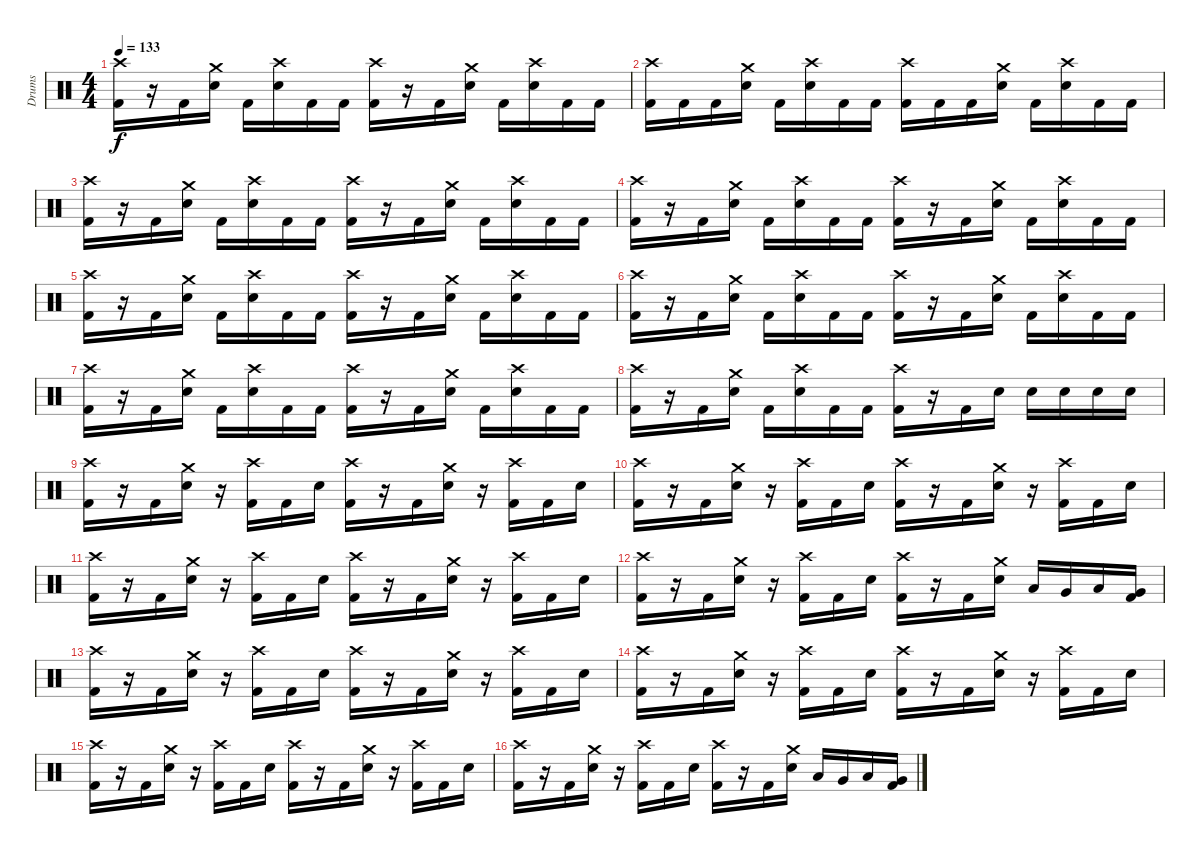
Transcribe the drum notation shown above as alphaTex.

\track ("Drums" "Drums") {instrument percussion}
\staff {score}
\articulation defaults
\ts (4 4)
\tempo 133
\clef neutral
\ks c
("Crash high (hit)" "Kick (hit) 2").16{dy f} r.16 "Kick (hit) 2".16 ("Crash medium (hit)" "Electric Snare (hit)").16 "Kick (hit) 2".16 ("Crash high (hit)" "Electric Snare (hit)").16 "Kick (hit) 2".16 "Kick (hit) 2".16 ("Crash high (hit)" "Kick (hit) 2").16 r.16 "Kick (hit) 2".16 ("Crash medium (hit)" "Electric Snare (hit)").16 "Kick (hit) 2".16 ("Crash high (hit)" "Electric Snare (hit)").16 "Kick (hit) 2".16 "Kick (hit) 2".16 |
("Crash high (hit)" "Kick (hit) 2").16 "Kick (hit) 2".16 "Kick (hit) 2".16 ("Crash medium (hit)" "Electric Snare (hit)").16 "Kick (hit) 2".16 ("Crash high (hit)" "Electric Snare (hit)").16 "Kick (hit) 2".16 "Kick (hit) 2".16 ("Crash high (hit)" "Kick (hit) 2").16 "Kick (hit) 2".16 "Kick (hit) 2".16 ("Crash medium (hit)" "Electric Snare (hit)").16 "Kick (hit) 2".16 ("Crash high (hit)" "Electric Snare (hit)").16 "Kick (hit) 2".16 "Kick (hit) 2".16 |
("Crash high (hit)" "Kick (hit) 2").16 r.16 "Kick (hit) 2".16 ("Crash medium (hit)" "Electric Snare (hit)").16 "Kick (hit) 2".16 ("Crash high (hit)" "Electric Snare (hit)").16 "Kick (hit) 2".16 "Kick (hit) 2".16 ("Crash high (hit)" "Kick (hit) 2").16 r.16 "Kick (hit) 2".16 ("Crash medium (hit)" "Electric Snare (hit)").16 "Kick (hit) 2".16 ("Crash high (hit)" "Electric Snare (hit)").16 "Kick (hit) 2".16 "Kick (hit) 2".16 |
("Crash high (hit)" "Kick (hit) 2").16 r.16 "Kick (hit) 2".16 ("Crash medium (hit)" "Electric Snare (hit)").16 "Kick (hit) 2".16 ("Crash high (hit)" "Electric Snare (hit)").16 "Kick (hit) 2".16 "Kick (hit) 2".16 ("Crash high (hit)" "Kick (hit) 2").16 r.16 "Kick (hit) 2".16 ("Crash medium (hit)" "Electric Snare (hit)").16 "Kick (hit) 2".16 ("Crash high (hit)" "Electric Snare (hit)").16 "Kick (hit) 2".16 "Kick (hit) 2".16 |
("Crash high (hit)" "Kick (hit) 2").16 r.16 "Kick (hit) 2".16 ("Crash medium (hit)" "Electric Snare (hit)").16 "Kick (hit) 2".16 ("Crash high (hit)" "Electric Snare (hit)").16 "Kick (hit) 2".16 "Kick (hit) 2".16 ("Crash high (hit)" "Kick (hit) 2").16 r.16 "Kick (hit) 2".16 ("Crash medium (hit)" "Electric Snare (hit)").16 "Kick (hit) 2".16 ("Crash high (hit)" "Electric Snare (hit)").16 "Kick (hit) 2".16 "Kick (hit) 2".16 |
("Crash high (hit)" "Kick (hit) 2").16 r.16 "Kick (hit) 2".16 ("Crash medium (hit)" "Electric Snare (hit)").16 "Kick (hit) 2".16 ("Crash high (hit)" "Electric Snare (hit)").16 "Kick (hit) 2".16 "Kick (hit) 2".16 ("Crash high (hit)" "Kick (hit) 2").16 r.16 "Kick (hit) 2".16 ("Crash medium (hit)" "Electric Snare (hit)").16 "Kick (hit) 2".16 ("Crash high (hit)" "Electric Snare (hit)").16 "Kick (hit) 2".16 "Kick (hit) 2".16 |
("Crash high (hit)" "Kick (hit) 2").16 r.16 "Kick (hit) 2".16 ("Crash medium (hit)" "Electric Snare (hit)").16 "Kick (hit) 2".16 ("Crash high (hit)" "Electric Snare (hit)").16 "Kick (hit) 2".16 "Kick (hit) 2".16 ("Crash high (hit)" "Kick (hit) 2").16 r.16 "Kick (hit) 2".16 ("Crash medium (hit)" "Electric Snare (hit)").16 "Kick (hit) 2".16 ("Crash high (hit)" "Electric Snare (hit)").16 "Kick (hit) 2".16 "Kick (hit) 2".16 |
("Crash high (hit)" "Kick (hit) 2").16 r.16 "Kick (hit) 2".16 ("Crash medium (hit)" "Electric Snare (hit)").16 "Kick (hit) 2".16 ("Crash high (hit)" "Electric Snare (hit)").16 "Kick (hit) 2".16 "Kick (hit) 2".16 ("Crash high (hit)" "Kick (hit) 2").16 r.16 "Kick (hit) 2".16 "Electric Snare (hit)".16 "Electric Snare (hit)".16 "Electric Snare (hit)".16 "Electric Snare (hit)".16 "Electric Snare (hit)".16 |
("Crash high (hit)" "Kick (hit) 2").16 r.16 "Kick (hit) 2".16 ("Crash medium (hit)" "Electric Snare (hit)").16 r.16 ("Crash high (hit)" "Kick (hit) 2").16 "Kick (hit) 2".16 "Electric Snare (hit)".16 ("Crash high (hit)" "Kick (hit) 2").16 r.16 "Kick (hit) 2".16 ("Crash medium (hit)" "Electric Snare (hit)").16 r.16 ("Crash high (hit)" "Kick (hit) 2").16 "Kick (hit) 2".16 "Electric Snare (hit)".16 |
("Crash high (hit)" "Kick (hit) 2").16 r.16 "Kick (hit) 2".16 ("Crash medium (hit)" "Electric Snare (hit)").16 r.16 ("Crash high (hit)" "Kick (hit) 2").16 "Kick (hit) 2".16 "Electric Snare (hit)".16 ("Crash high (hit)" "Kick (hit) 2").16 r.16 "Kick (hit) 2".16 ("Crash medium (hit)" "Electric Snare (hit)").16 r.16 ("Crash high (hit)" "Kick (hit) 2").16 "Kick (hit) 2".16 "Electric Snare (hit)".16 |
("Crash high (hit)" "Kick (hit) 2").16 r.16 "Kick (hit) 2".16 ("Crash medium (hit)" "Electric Snare (hit)").16 r.16 ("Crash high (hit)" "Kick (hit) 2").16 "Kick (hit) 2".16 "Electric Snare (hit)".16 ("Crash high (hit)" "Kick (hit) 2").16 r.16 "Kick (hit) 2".16 ("Crash medium (hit)" "Electric Snare (hit)").16 r.16 ("Crash high (hit)" "Kick (hit) 2").16 "Kick (hit) 2".16 "Electric Snare (hit)".16 |
("Crash high (hit)" "Kick (hit) 2").16 r.16 "Kick (hit) 2".16 ("Crash medium (hit)" "Electric Snare (hit)").16 r.16 ("Crash high (hit)" "Kick (hit) 2").16 "Kick (hit) 2".16 "Electric Snare (hit)".16 ("Crash high (hit)" "Kick (hit) 2").16 r.16 "Kick (hit) 2".16 ("Crash medium (hit)" "Electric Snare (hit)").16 "Low Tom (hit)".16 "Very Low Tom (hit)".16 "Low Floor Tom (hit)".16 ("Very Low Tom (hit)" "Kick (hit) 2").16 |
("Crash high (hit)" "Kick (hit) 2").16 r.16 "Kick (hit) 2".16 ("Crash medium (hit)" "Electric Snare (hit)").16 r.16 ("Crash high (hit)" "Kick (hit) 2").16 "Kick (hit) 2".16 "Electric Snare (hit)".16 ("Crash high (hit)" "Kick (hit) 2").16 r.16 "Kick (hit) 2".16 ("Crash medium (hit)" "Electric Snare (hit)").16 r.16 ("Crash high (hit)" "Kick (hit) 2").16 "Kick (hit) 2".16 "Electric Snare (hit)".16 |
("Crash high (hit)" "Kick (hit) 2").16 r.16 "Kick (hit) 2".16 ("Crash medium (hit)" "Electric Snare (hit)").16 r.16 ("Crash high (hit)" "Kick (hit) 2").16 "Kick (hit) 2".16 "Electric Snare (hit)".16 ("Crash high (hit)" "Kick (hit) 2").16 r.16 "Kick (hit) 2".16 ("Crash medium (hit)" "Electric Snare (hit)").16 r.16 ("Crash high (hit)" "Kick (hit) 2").16 "Kick (hit) 2".16 "Electric Snare (hit)".16 |
("Crash high (hit)" "Kick (hit) 2").16 r.16 "Kick (hit) 2".16 ("Crash medium (hit)" "Electric Snare (hit)").16 r.16 ("Crash high (hit)" "Kick (hit) 2").16 "Kick (hit) 2".16 "Electric Snare (hit)".16 ("Crash high (hit)" "Kick (hit) 2").16 r.16 "Kick (hit) 2".16 ("Crash medium (hit)" "Electric Snare (hit)").16 r.16 ("Crash high (hit)" "Kick (hit) 2").16 "Kick (hit) 2".16 "Electric Snare (hit)".16 |
("Crash high (hit)" "Kick (hit) 2").16 r.16 "Kick (hit) 2".16 ("Crash medium (hit)" "Electric Snare (hit)").16 r.16 ("Crash high (hit)" "Kick (hit) 2").16 "Kick (hit) 2".16 "Electric Snare (hit)".16 ("Crash high (hit)" "Kick (hit) 2").16 r.16 "Kick (hit) 2".16 ("Crash medium (hit)" "Electric Snare (hit)").16 "Low Tom (hit)".16 "Very Low Tom (hit)".16 "Low Floor Tom (hit)".16 ("Very Low Tom (hit)" "Kick (hit) 2").16
